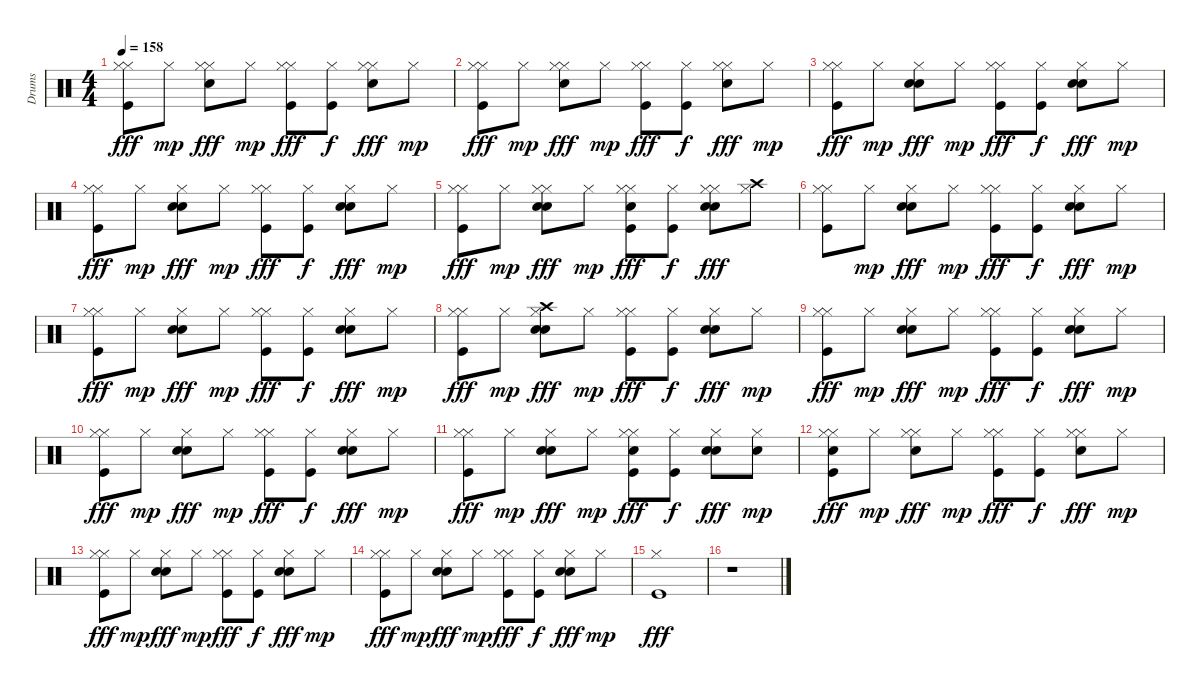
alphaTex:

\track ("Drums" "Drums") {instrument percussion}
\staff {score}
\articulation defaults
\ts (4 4)
\tempo 158
\clef neutral
\ks c
("Hi-Hat (closed)" "Kick (hit)" "Hi-Hat (closed)").8{dy fff} "Hi-Hat (closed)".8{dy mp} ("Snare (hit) 2" "Hi-Hat (closed)" "Hi-Hat (closed)").8{dy fff} "Hi-Hat (closed)".8{dy mp} ("Hi-Hat (closed)" "Kick (hit)" "Hi-Hat (closed)").8{dy fff} ("Hi-Hat (closed)" "Kick (hit)").8{dy f} ("Snare (hit) 2" "Hi-Hat (closed)" "Hi-Hat (closed)").8{dy fff} "Hi-Hat (closed)".8{dy mp} |
("Hi-Hat (closed)" "Kick (hit)" "Hi-Hat (closed)").8{dy fff} "Hi-Hat (closed)".8{dy mp} ("Snare (hit) 2" "Hi-Hat (closed)" "Hi-Hat (closed)").8{dy fff} "Hi-Hat (closed)".8{dy mp} ("Hi-Hat (closed)" "Kick (hit)" "Hi-Hat (closed)").8{dy fff} ("Hi-Hat (closed)" "Kick (hit)").8{dy f} ("Snare (hit) 2" "Hi-Hat (closed)" "Hi-Hat (closed)").8{dy fff} "Hi-Hat (closed)".8{dy mp} |
("Hi-Hat (closed)" "Kick (hit)" "Hi-Hat (closed)").8{dy fff} "Hi-Hat (closed)".8{dy mp} ("Snare (hit) 2" "Hi-Hat (closed)" "Electric Snare (hit)").8{dy fff} "Hi-Hat (closed)".8{dy mp} ("Hi-Hat (closed)" "Kick (hit)" "Hi-Hat (closed)").8{dy fff} ("Hi-Hat (closed)" "Kick (hit)").8{dy f} ("Snare (hit) 2" "Hi-Hat (closed)" "Electric Snare (hit)").8{dy fff} "Hi-Hat (closed)".8{dy mp} |
("Hi-Hat (closed)" "Kick (hit)" "Hi-Hat (closed)").8{dy fff} "Hi-Hat (closed)".8{dy mp} ("Snare (hit) 2" "Hi-Hat (closed)" "Electric Snare (hit)").8{dy fff} "Hi-Hat (closed)".8{dy mp} ("Hi-Hat (closed)" "Kick (hit)" "Hi-Hat (closed)").8{dy fff} ("Hi-Hat (closed)" "Kick (hit)").8{dy f} ("Snare (hit) 2" "Hi-Hat (closed)" "Electric Snare (hit)").8{dy fff} "Hi-Hat (closed)".8{dy mp} |
("Hi-Hat (closed)" "Kick (hit)" "Hi-Hat (closed)").8{dy fff} "Hi-Hat (closed)".8{dy mp} ("Snare (hit) 2" "Hi-Hat (closed)" "Hi-Hat (closed)" "Electric Snare (hit)").8{dy fff} "Hi-Hat (closed)".8{dy mp} ("Hi-Hat (closed)" "Kick (hit)" "Hi-Hat (closed)" "Electric Snare (hit)").8{dy fff} ("Hi-Hat (closed)" "Kick (hit)").8{dy f} ("Snare (hit) 2" "Hi-Hat (closed)" "Hi-Hat (closed)" "Electric Snare (hit)").8{dy fff} ("Hi-Hat (closed)" "Crash high (hit)").8 |
("Hi-Hat (closed)" "Kick (hit)" "Hi-Hat (closed)").8 "Hi-Hat (closed)".8{dy mp} ("Snare (hit) 2" "Hi-Hat (closed)" "Electric Snare (hit)").8{dy fff} "Hi-Hat (closed)".8{dy mp} ("Hi-Hat (closed)" "Kick (hit)" "Hi-Hat (closed)").8{dy fff} ("Hi-Hat (closed)" "Kick (hit)").8{dy f} ("Snare (hit) 2" "Hi-Hat (closed)" "Electric Snare (hit)").8{dy fff} "Hi-Hat (closed)".8{dy mp} |
("Hi-Hat (closed)" "Kick (hit)" "Hi-Hat (closed)").8{dy fff} "Hi-Hat (closed)".8{dy mp} ("Snare (hit) 2" "Hi-Hat (closed)" "Electric Snare (hit)").8{dy fff} "Hi-Hat (closed)".8{dy mp} ("Hi-Hat (closed)" "Kick (hit)" "Hi-Hat (closed)").8{dy fff} ("Hi-Hat (closed)" "Kick (hit)").8{dy f} ("Snare (hit) 2" "Hi-Hat (closed)" "Electric Snare (hit)").8{dy fff} "Hi-Hat (closed)".8{dy mp} |
("Hi-Hat (closed)" "Kick (hit)" "Hi-Hat (closed)").8{dy fff} "Hi-Hat (closed)".8{dy mp} ("Snare (hit) 2" "Hi-Hat (closed)" "Electric Snare (hit)" "Crash high (hit)").8{dy fff} "Hi-Hat (closed)".8{dy mp} ("Hi-Hat (closed)" "Kick (hit)" "Hi-Hat (closed)").8{dy fff} ("Hi-Hat (closed)" "Kick (hit)").8{dy f} ("Snare (hit) 2" "Hi-Hat (closed)" "Electric Snare (hit)").8{dy fff} "Hi-Hat (closed)".8{dy mp} |
("Hi-Hat (closed)" "Kick (hit)" "Hi-Hat (closed)").8{dy fff} "Hi-Hat (closed)".8{dy mp} ("Snare (hit) 2" "Hi-Hat (closed)" "Electric Snare (hit)").8{dy fff} "Hi-Hat (closed)".8{dy mp} ("Hi-Hat (closed)" "Kick (hit)" "Hi-Hat (closed)").8{dy fff} ("Hi-Hat (closed)" "Kick (hit)").8{dy f} ("Snare (hit) 2" "Hi-Hat (closed)" "Electric Snare (hit)").8{dy fff} "Hi-Hat (closed)".8{dy mp} |
("Hi-Hat (closed)" "Kick (hit)" "Hi-Hat (closed)").8{dy fff} "Hi-Hat (closed)".8{dy mp} ("Snare (hit) 2" "Hi-Hat (closed)" "Electric Snare (hit)").8{dy fff} "Hi-Hat (closed)".8{dy mp} ("Hi-Hat (closed)" "Kick (hit)" "Hi-Hat (closed)").8{dy fff} ("Hi-Hat (closed)" "Kick (hit)").8{dy f} ("Snare (hit) 2" "Hi-Hat (closed)" "Electric Snare (hit)").8{dy fff} "Hi-Hat (closed)".8{dy mp} |
("Hi-Hat (closed)" "Kick (hit)" "Hi-Hat (closed)").8{dy fff} "Hi-Hat (closed)".8{dy mp} ("Snare (hit) 2" "Hi-Hat (closed)" "Electric Snare (hit)").8{dy fff} "Hi-Hat (closed)".8{dy mp} ("Hi-Hat (closed)" "Kick (hit)" "Hi-Hat (closed)" "Electric Snare (hit)").8{dy fff} ("Hi-Hat (closed)" "Kick (hit)").8{dy f} ("Snare (hit) 2" "Hi-Hat (closed)" "Electric Snare (hit)").8{dy fff} ("Hi-Hat (closed)" "Electric Snare (hit)").8{dy mp} |
("Hi-Hat (closed)" "Kick (hit)" "Hi-Hat (closed)" "Electric Snare (hit)").8{dy fff} "Hi-Hat (closed)".8{dy mp} ("Snare (hit) 2" "Hi-Hat (closed)" "Hi-Hat (closed)").8{dy fff} "Hi-Hat (closed)".8{dy mp} ("Hi-Hat (closed)" "Kick (hit)" "Hi-Hat (closed)").8{dy fff} ("Hi-Hat (closed)" "Kick (hit)").8{dy f} ("Snare (hit) 2" "Hi-Hat (closed)" "Hi-Hat (closed)").8{dy fff} "Hi-Hat (closed)".8{dy mp} |
("Hi-Hat (closed)" "Kick (hit)" "Hi-Hat (closed)").8{dy fff} "Hi-Hat (closed)".8{dy mp} ("Snare (hit) 2" "Hi-Hat (closed)" "Electric Snare (hit)").8{dy fff} "Hi-Hat (closed)".8{dy mp} ("Hi-Hat (closed)" "Kick (hit)" "Hi-Hat (closed)").8{dy fff} ("Hi-Hat (closed)" "Kick (hit)").8{dy f} ("Snare (hit) 2" "Hi-Hat (closed)" "Electric Snare (hit)").8{dy fff} "Hi-Hat (closed)".8{dy mp} |
("Hi-Hat (closed)" "Kick (hit)" "Hi-Hat (closed)").8{dy fff} "Hi-Hat (closed)".8{dy mp} ("Snare (hit) 2" "Hi-Hat (closed)" "Electric Snare (hit)").8{dy fff} "Hi-Hat (closed)".8{dy mp} ("Hi-Hat (closed)" "Kick (hit)" "Hi-Hat (closed)").8{dy fff} ("Hi-Hat (closed)" "Kick (hit)").8{dy f} ("Snare (hit) 2" "Hi-Hat (closed)" "Electric Snare (hit)").8{dy fff} "Hi-Hat (closed)".8{dy mp} |
("Hi-Hat (closed)" "Kick (hit)").1{dy fff} |
r.1
